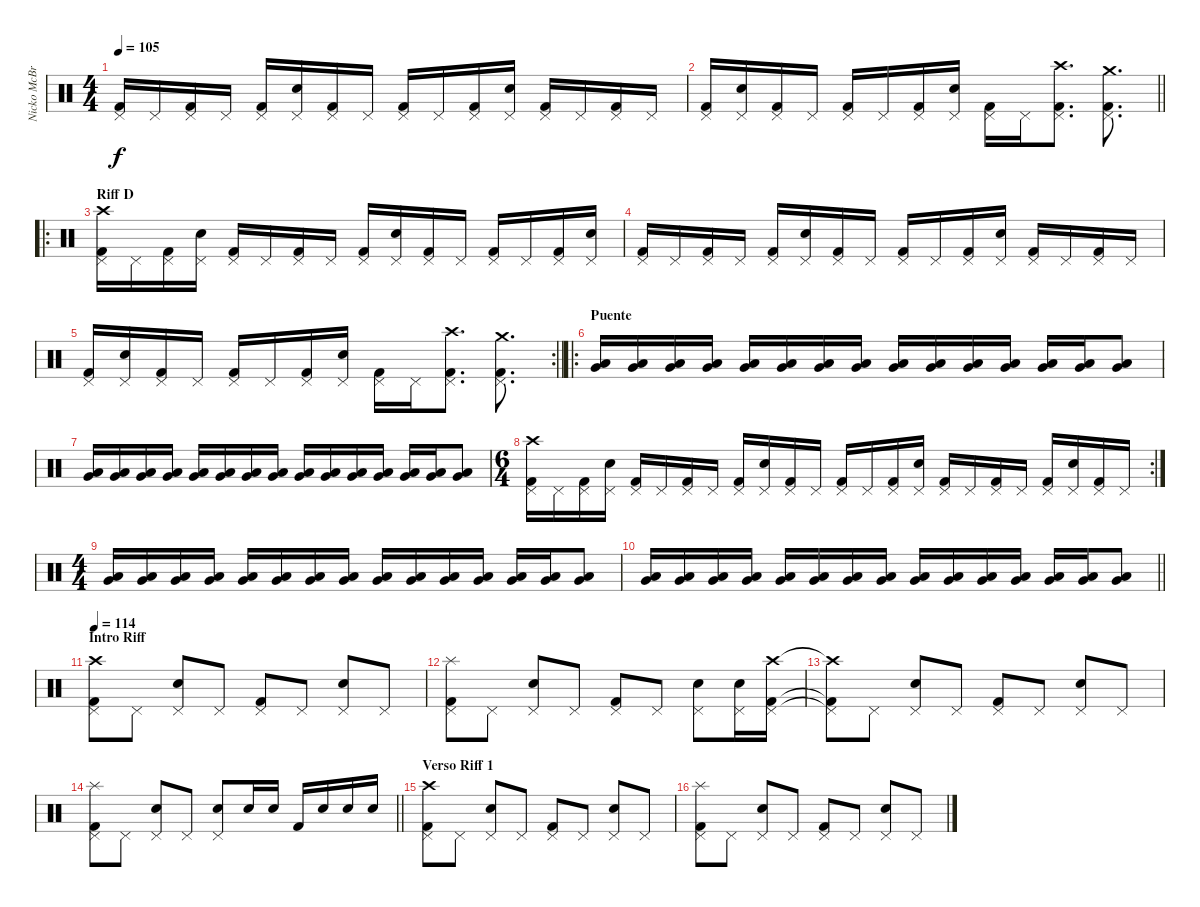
\track ("Nicko McBrain" "Nicko McBr") {instrument percussion}
\staff {score}
\articulation defaults
\ts (4 4)
\tempo 105
\clef neutral
\ks c
("Kick (hit) 2" "Pedal Hi-Hat (hit)").16{dy f} "Pedal Hi-Hat (hit)".16 ("Kick (hit) 2" "Pedal Hi-Hat (hit)").16 "Pedal Hi-Hat (hit)".16 ("Kick (hit) 2" "Pedal Hi-Hat (hit)").16 ("Snare (hit) 2" "Pedal Hi-Hat (hit)").16 ("Kick (hit) 2" "Pedal Hi-Hat (hit)").16 "Pedal Hi-Hat (hit)".16 ("Kick (hit) 2" "Pedal Hi-Hat (hit)").16 "Pedal Hi-Hat (hit)".16 ("Kick (hit) 2" "Pedal Hi-Hat (hit)").16 ("Snare (hit) 2" "Pedal Hi-Hat (hit)").16 ("Kick (hit) 2" "Pedal Hi-Hat (hit)").16 "Pedal Hi-Hat (hit)".16 ("Kick (hit) 2" "Pedal Hi-Hat (hit)").16 "Pedal Hi-Hat (hit)".16 |
\barLineRight lightlight
("Kick (hit) 2" "Pedal Hi-Hat (hit)").16 ("Snare (hit) 2" "Pedal Hi-Hat (hit)").16 ("Kick (hit) 2" "Pedal Hi-Hat (hit)").16 "Pedal Hi-Hat (hit)".16 ("Kick (hit) 2" "Pedal Hi-Hat (hit)").16 "Pedal Hi-Hat (hit)".16 ("Kick (hit) 2" "Pedal Hi-Hat (hit)").16 ("Snare (hit) 2" "Pedal Hi-Hat (hit)").16 ("Kick (hit) 2" "Pedal Hi-Hat (hit)").16 "Pedal Hi-Hat (hit)".16 ("Kick (hit) 2" "Pedal Hi-Hat (hit)" "Crash high (hit)").8{d} ("Kick (hit) 2" "Pedal Hi-Hat (hit)" "Crash medium (hit)").8{d} |
\ro
\section ("" "Riff D")
("Kick (hit) 2" "Pedal Hi-Hat (hit)" "Crash high (hit)").16 "Pedal Hi-Hat (hit)".16 ("Kick (hit) 2" "Pedal Hi-Hat (hit)").16 ("Snare (hit) 2" "Pedal Hi-Hat (hit)").16 ("Kick (hit) 2" "Pedal Hi-Hat (hit)").16 "Pedal Hi-Hat (hit)".16 ("Kick (hit) 2" "Pedal Hi-Hat (hit)").16 "Pedal Hi-Hat (hit)".16 ("Kick (hit) 2" "Pedal Hi-Hat (hit)").16 ("Snare (hit) 2" "Pedal Hi-Hat (hit)").16 ("Kick (hit) 2" "Pedal Hi-Hat (hit)").16 "Pedal Hi-Hat (hit)".16 ("Kick (hit) 2" "Pedal Hi-Hat (hit)").16 "Pedal Hi-Hat (hit)".16 ("Kick (hit) 2" "Pedal Hi-Hat (hit)").16 ("Snare (hit) 2" "Pedal Hi-Hat (hit)").16 |
("Kick (hit) 2" "Pedal Hi-Hat (hit)").16 "Pedal Hi-Hat (hit)".16 ("Kick (hit) 2" "Pedal Hi-Hat (hit)").16 "Pedal Hi-Hat (hit)".16 ("Kick (hit) 2" "Pedal Hi-Hat (hit)").16 ("Snare (hit) 2" "Pedal Hi-Hat (hit)").16 ("Kick (hit) 2" "Pedal Hi-Hat (hit)").16 "Pedal Hi-Hat (hit)".16 ("Kick (hit) 2" "Pedal Hi-Hat (hit)").16 "Pedal Hi-Hat (hit)".16 ("Kick (hit) 2" "Pedal Hi-Hat (hit)").16 ("Snare (hit) 2" "Pedal Hi-Hat (hit)").16 ("Kick (hit) 2" "Pedal Hi-Hat (hit)").16 "Pedal Hi-Hat (hit)".16 ("Kick (hit) 2" "Pedal Hi-Hat (hit)").16 "Pedal Hi-Hat (hit)".16 |
\rc 2
\barLineRight lightlight
("Kick (hit) 2" "Pedal Hi-Hat (hit)").16 ("Snare (hit) 2" "Pedal Hi-Hat (hit)").16 ("Kick (hit) 2" "Pedal Hi-Hat (hit)").16 "Pedal Hi-Hat (hit)".16 ("Kick (hit) 2" "Pedal Hi-Hat (hit)").16 "Pedal Hi-Hat (hit)".16 ("Kick (hit) 2" "Pedal Hi-Hat (hit)").16 ("Snare (hit) 2" "Pedal Hi-Hat (hit)").16 ("Kick (hit) 2" "Pedal Hi-Hat (hit)").16 "Pedal Hi-Hat (hit)".16 ("Kick (hit) 2" "Pedal Hi-Hat (hit)" "Crash high (hit)").8{d} ("Kick (hit) 2" "Pedal Hi-Hat (hit)" "Crash medium (hit)").8{d} |
\ro
\section ("" "Puente")
("Very Low Tom (hit)" "Low Tom (hit)").16 ("Very Low Tom (hit)" "Low Tom (hit)").16 ("Very Low Tom (hit)" "Low Tom (hit)").16 ("Low Floor Tom (hit)" "Very Low Tom (hit)").16 ("Low Floor Tom (hit)" "Very Low Tom (hit)").16 ("Low Floor Tom (hit)" "Very Low Tom (hit)").16 ("Very Low Tom (hit)" "Low Tom (hit)").16 ("Very Low Tom (hit)" "Low Tom (hit)").16 ("Very Low Tom (hit)" "Low Tom (hit)").16 ("Low Floor Tom (hit)" "Very Low Tom (hit)").16 ("Low Floor Tom (hit)" "Very Low Tom (hit)").16 ("Low Floor Tom (hit)" "Very Low Tom (hit)").16 ("Low Floor Tom (hit)" "Very Low Tom (hit)").16 ("Low Floor Tom (hit)" "Very Low Tom (hit)").16 ("Low Floor Tom (hit)" "Very Low Tom (hit)").8 |
("Very Low Tom (hit)" "Low Tom (hit)").16 ("Very Low Tom (hit)" "Low Tom (hit)").16 ("Very Low Tom (hit)" "Low Tom (hit)").16 ("Low Floor Tom (hit)" "Very Low Tom (hit)").16 ("Low Floor Tom (hit)" "Very Low Tom (hit)").16 ("Low Floor Tom (hit)" "Very Low Tom (hit)").16 ("Very Low Tom (hit)" "Low Tom (hit)").16 ("Very Low Tom (hit)" "Low Tom (hit)").16 ("Very Low Tom (hit)" "Low Tom (hit)").16 ("Low Floor Tom (hit)" "Very Low Tom (hit)").16 ("Low Floor Tom (hit)" "Very Low Tom (hit)").16 ("Low Floor Tom (hit)" "Very Low Tom (hit)").16 ("Low Floor Tom (hit)" "Very Low Tom (hit)").16 ("Low Floor Tom (hit)" "Very Low Tom (hit)").16 ("Low Floor Tom (hit)" "Very Low Tom (hit)").8 |
\rc 2
\ts (6 4)
("Kick (hit) 2" "Pedal Hi-Hat (hit)" "Crash high (hit)").16 "Pedal Hi-Hat (hit)".16 ("Kick (hit) 2" "Pedal Hi-Hat (hit)").16 ("Snare (hit) 2" "Pedal Hi-Hat (hit)").16 ("Kick (hit) 2" "Pedal Hi-Hat (hit)").16 "Pedal Hi-Hat (hit)".16 ("Kick (hit) 2" "Pedal Hi-Hat (hit)").16 "Pedal Hi-Hat (hit)".16 ("Kick (hit) 2" "Pedal Hi-Hat (hit)").16 ("Snare (hit) 2" "Pedal Hi-Hat (hit)").16 ("Kick (hit) 2" "Pedal Hi-Hat (hit)").16 "Pedal Hi-Hat (hit)".16 ("Kick (hit) 2" "Pedal Hi-Hat (hit)").16 "Pedal Hi-Hat (hit)".16 ("Kick (hit) 2" "Pedal Hi-Hat (hit)").16 ("Snare (hit) 2" "Pedal Hi-Hat (hit)").16 ("Kick (hit) 2" "Pedal Hi-Hat (hit)").16 "Pedal Hi-Hat (hit)".16 ("Kick (hit) 2" "Pedal Hi-Hat (hit)").16 "Pedal Hi-Hat (hit)".16 ("Kick (hit) 2" "Pedal Hi-Hat (hit)").16 ("Snare (hit) 2" "Pedal Hi-Hat (hit)").16 ("Kick (hit) 2" "Pedal Hi-Hat (hit)").16 "Pedal Hi-Hat (hit)".16 |
\ts (4 4)
("Very Low Tom (hit)" "Low Tom (hit)").16 ("Very Low Tom (hit)" "Low Tom (hit)").16 ("Very Low Tom (hit)" "Low Tom (hit)").16 ("Low Floor Tom (hit)" "Very Low Tom (hit)").16 ("Low Floor Tom (hit)" "Very Low Tom (hit)").16 ("Low Floor Tom (hit)" "Very Low Tom (hit)").16 ("Very Low Tom (hit)" "Low Tom (hit)").16 ("Very Low Tom (hit)" "Low Tom (hit)").16 ("Very Low Tom (hit)" "Low Tom (hit)").16 ("Low Floor Tom (hit)" "Very Low Tom (hit)").16 ("Low Floor Tom (hit)" "Very Low Tom (hit)").16 ("Low Floor Tom (hit)" "Very Low Tom (hit)").16 ("Low Floor Tom (hit)" "Very Low Tom (hit)").16 ("Low Floor Tom (hit)" "Very Low Tom (hit)").16 ("Low Floor Tom (hit)" "Very Low Tom (hit)").8 |
\barLineRight lightlight
("Very Low Tom (hit)" "Low Tom (hit)").16 ("Very Low Tom (hit)" "Low Tom (hit)").16 ("Very Low Tom (hit)" "Low Tom (hit)").16 ("Low Floor Tom (hit)" "Very Low Tom (hit)").16 ("Low Floor Tom (hit)" "Very Low Tom (hit)").16 ("Low Floor Tom (hit)" "Very Low Tom (hit)").16 ("Very Low Tom (hit)" "Low Tom (hit)").16 ("Very Low Tom (hit)" "Low Tom (hit)").16 ("Very Low Tom (hit)" "Low Tom (hit)").16 ("Low Floor Tom (hit)" "Very Low Tom (hit)").16 ("Low Floor Tom (hit)" "Very Low Tom (hit)").16 ("Low Floor Tom (hit)" "Very Low Tom (hit)").16 ("Low Floor Tom (hit)" "Very Low Tom (hit)").16 ("Low Floor Tom (hit)" "Very Low Tom (hit)").16 ("Low Floor Tom (hit)" "Very Low Tom (hit)").8 |
\section ("" "Intro Riff")
\tempo 114
("Kick (hit) 2" "Pedal Hi-Hat (hit)" "Crash high (hit)").8 "Pedal Hi-Hat (hit)".8 ("Snare (hit) 2" "Pedal Hi-Hat (hit)").8 "Pedal Hi-Hat (hit)".8 ("Kick (hit) 2" "Pedal Hi-Hat (hit)").8 "Pedal Hi-Hat (hit)".8 ("Snare (hit) 2" "Pedal Hi-Hat (hit)").8 "Pedal Hi-Hat (hit)".8 |
("Kick (hit) 2" "Pedal Hi-Hat (hit)" "Splash (hit)").8 "Pedal Hi-Hat (hit)".8 ("Snare (hit) 2" "Pedal Hi-Hat (hit)").8 "Pedal Hi-Hat (hit)".8 ("Kick (hit) 2" "Pedal Hi-Hat (hit)").8 "Pedal Hi-Hat (hit)".8 ("Snare (hit) 2" "Pedal Hi-Hat (hit)").8 ("Snare (hit) 2" "Pedal Hi-Hat (hit)").16 ("Kick (hit) 2" "Pedal Hi-Hat (hit)" "Crash high (hit)").16 |
("Kick (hit) 2"{t} "Pedal Hi-Hat (hit)"{t} "Crash high (hit)"{t}).8 "Pedal Hi-Hat (hit)".8 ("Snare (hit) 2" "Pedal Hi-Hat (hit)").8 "Pedal Hi-Hat (hit)".8 ("Kick (hit) 2" "Pedal Hi-Hat (hit)").8 "Pedal Hi-Hat (hit)".8 ("Snare (hit) 2" "Pedal Hi-Hat (hit)").8 "Pedal Hi-Hat (hit)".8 |
\barLineRight lightlight
("Kick (hit) 2" "Pedal Hi-Hat (hit)" "Splash (hit)").8 "Pedal Hi-Hat (hit)".8 ("Snare (hit) 2" "Pedal Hi-Hat (hit)").8 "Pedal Hi-Hat (hit)".8 ("Snare (hit) 2" "Pedal Hi-Hat (hit)").8 "Snare (hit) 2".16 "Snare (hit) 2".16 "Kick (hit) 2".16 "Snare (hit) 2".16 "Snare (hit) 2".16 "Snare (hit) 2".16 |
\section ("" "Verso Riff 1")
("Kick (hit) 2" "Pedal Hi-Hat (hit)" "Crash high (hit)").8 "Pedal Hi-Hat (hit)".8 ("Snare (hit) 2" "Pedal Hi-Hat (hit)").8 "Pedal Hi-Hat (hit)".8 ("Kick (hit) 2" "Pedal Hi-Hat (hit)").8 "Pedal Hi-Hat (hit)".8 ("Snare (hit) 2" "Pedal Hi-Hat (hit)").8 "Pedal Hi-Hat (hit)".8 |
("Kick (hit) 2" "Pedal Hi-Hat (hit)" "Splash (hit)").8 "Pedal Hi-Hat (hit)".8 ("Snare (hit) 2" "Pedal Hi-Hat (hit)").8 "Pedal Hi-Hat (hit)".8 ("Kick (hit) 2" "Pedal Hi-Hat (hit)").8 "Pedal Hi-Hat (hit)".8 ("Snare (hit) 2" "Pedal Hi-Hat (hit)").8 "Pedal Hi-Hat (hit)".8
